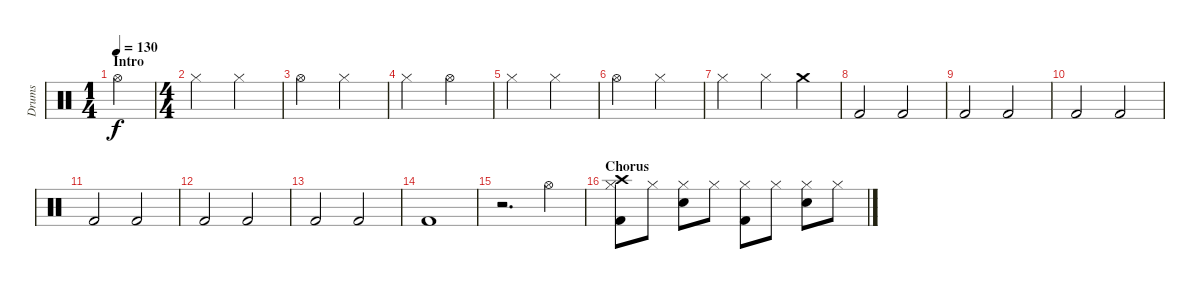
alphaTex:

\track ("Drums" "Drums") {instrument percussion}
\staff {score}
\articulation defaults
\ts (1 4)
\section ("" "Intro")
\tempo 130
\clef neutral
\ks c "Hi-Hat (open)".4{dy f}
|
\ts (4 4)
"Hi-Hat (closed)".2 "Hi-Hat (closed)".2 |
"Hi-Hat (open)".2 "Hi-Hat (closed)".2 |
"Hi-Hat (closed)".2 "Hi-Hat (open)".2 |
"Hi-Hat (closed)".2 "Hi-Hat (closed)".2 |
"Hi-Hat (open)".2 "Hi-Hat (closed)".2 |
"Hi-Hat (closed)".2 "Hi-Hat (closed)".4 "Crash medium (hit)".4 |
"Kick (hit) 2".2 "Kick (hit) 2".2 |
"Kick (hit) 2".2 "Kick (hit) 2".2 |
"Kick (hit) 2".2 "Kick (hit) 2".2 |
"Kick (hit) 2".2 "Kick (hit) 2".2 |
"Kick (hit) 2".2 "Kick (hit) 2".2 |
"Kick (hit) 2".2 "Kick (hit) 2".2 |
"Kick (hit) 2".1 |
r.2{d} "Hi-Hat (open)".4 |
\section ("" "Chorus")
("Crash high (hit)" "Hi-Hat (closed)" "Kick (hit) 2").8 "Hi-Hat (closed)".8 ("Hi-Hat (closed)" "Electric Snare (hit)").8 "Hi-Hat (closed)".8 ("Hi-Hat (closed)" "Kick (hit) 2").8 "Hi-Hat (closed)".8 ("Hi-Hat (closed)" "Electric Snare (hit)").8 "Hi-Hat (closed)".8
